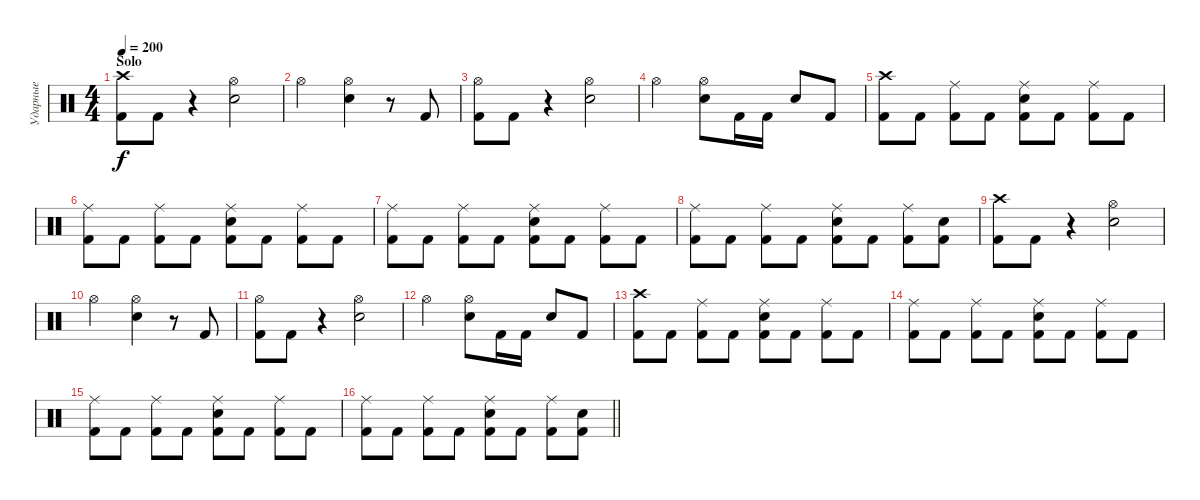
\track ("Ударные" "Ударные") {instrument percussion}
\staff {score}
\articulation defaults
\ts (4 4)
\section ("" "Solo")
\tempo 200
\clef neutral
\ks c
("Crash high (hit)" "Kick (hit) 2").8{dy f} "Kick (hit) 2".8 r.4 ("Hi-Hat (open)" "Snare (hit) 2").2 |
"Hi-Hat (open)".2 ("Hi-Hat (open)" "Snare (hit) 2").4 r.8 "Kick (hit) 2".8 |
("Hi-Hat (open)" "Kick (hit) 2").8 "Kick (hit) 2".8 r.4 ("Hi-Hat (open)" "Snare (hit) 2").2 |
"Hi-Hat (open)".2 ("Hi-Hat (open)" "Snare (hit) 2").8 "Kick (hit) 2".16 "Kick (hit) 2".16 "Snare (hit) 2".8 "Kick (hit) 2".8 |
("Crash high (hit)" "Kick (hit) 2").8 "Kick (hit) 2".8 ("Ride (middle)" "Kick (hit) 2").8 "Kick (hit) 2".8 ("Ride (middle)" "Snare (hit) 2" "Kick (hit) 2").8 "Kick (hit) 2".8 ("Ride (middle)" "Kick (hit) 2").8 "Kick (hit) 2".8 |
("Ride (middle)" "Kick (hit) 2").8 "Kick (hit) 2".8 ("Ride (middle)" "Kick (hit) 2").8 "Kick (hit) 2".8 ("Ride (middle)" "Snare (hit) 2" "Kick (hit) 2").8 "Kick (hit) 2".8 ("Ride (middle)" "Kick (hit) 2").8 "Kick (hit) 2".8 |
("Ride (middle)" "Kick (hit) 2").8 "Kick (hit) 2".8 ("Ride (middle)" "Kick (hit) 2").8 "Kick (hit) 2".8 ("Ride (middle)" "Snare (hit) 2" "Kick (hit) 2").8 "Kick (hit) 2".8 ("Ride (middle)" "Kick (hit) 2").8 "Kick (hit) 2".8 |
("Ride (middle)" "Kick (hit) 2").8 "Kick (hit) 2".8 ("Ride (middle)" "Kick (hit) 2").8 "Kick (hit) 2".8 ("Ride (middle)" "Snare (hit) 2" "Kick (hit) 2").8 "Kick (hit) 2".8 ("Ride (middle)" "Kick (hit) 2").8 ("Snare (hit) 2" "Kick (hit) 2").8 |
("Crash high (hit)" "Kick (hit) 2").8 "Kick (hit) 2".8 r.4 ("Hi-Hat (open)" "Snare (hit) 2").2 |
"Hi-Hat (open)".2 ("Hi-Hat (open)" "Snare (hit) 2").4 r.8 "Kick (hit) 2".8 |
("Hi-Hat (open)" "Kick (hit) 2").8 "Kick (hit) 2".8 r.4 ("Hi-Hat (open)" "Snare (hit) 2").2 |
"Hi-Hat (open)".2 ("Hi-Hat (open)" "Snare (hit) 2").8 "Kick (hit) 2".16 "Kick (hit) 2".16 "Snare (hit) 2".8 "Kick (hit) 2".8 |
("Crash high (hit)" "Kick (hit) 2").8 "Kick (hit) 2".8 ("Ride (middle)" "Kick (hit) 2").8 "Kick (hit) 2".8 ("Ride (middle)" "Snare (hit) 2" "Kick (hit) 2").8 "Kick (hit) 2".8 ("Ride (middle)" "Kick (hit) 2").8 "Kick (hit) 2".8 |
("Ride (middle)" "Kick (hit) 2").8 "Kick (hit) 2".8 ("Ride (middle)" "Kick (hit) 2").8 "Kick (hit) 2".8 ("Ride (middle)" "Snare (hit) 2" "Kick (hit) 2").8 "Kick (hit) 2".8 ("Ride (middle)" "Kick (hit) 2").8 "Kick (hit) 2".8 |
("Ride (middle)" "Kick (hit) 2").8 "Kick (hit) 2".8 ("Ride (middle)" "Kick (hit) 2").8 "Kick (hit) 2".8 ("Ride (middle)" "Snare (hit) 2" "Kick (hit) 2").8 "Kick (hit) 2".8 ("Ride (middle)" "Kick (hit) 2").8 "Kick (hit) 2".8 |
\barLineRight lightlight
("Ride (middle)" "Kick (hit) 2").8 "Kick (hit) 2".8 ("Ride (middle)" "Kick (hit) 2").8 "Kick (hit) 2".8 ("Ride (middle)" "Snare (hit) 2" "Kick (hit) 2").8 "Kick (hit) 2".8 ("Ride (middle)" "Kick (hit) 2").8 ("Snare (hit) 2" "Kick (hit) 2").8
